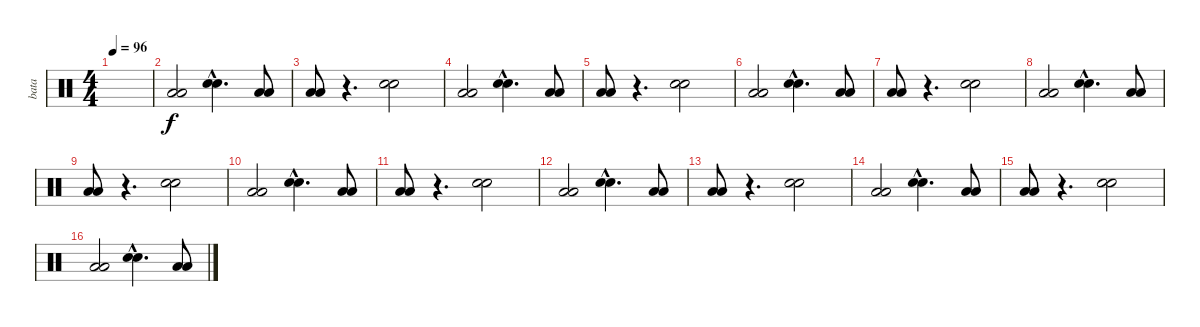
\track ("bata" "bata") {instrument percussion}
\staff {score}
\articulation defaults
\ts (4 4)
\tempo 96
\clef neutral
\ks c
|
("Low Floor Tom (hit)" "Low Floor Tom (hit)").2 ("Electric Snare (hit)"{hac} "Electric Snare (hit)"{hac}).4{d} ("Low Floor Tom (hit)" "Low Floor Tom (hit)").8 |
("Low Floor Tom (hit)" "Low Floor Tom (hit)").8 r.4{d} ("Electric Snare (hit)" "Electric Snare (hit)").2 |
("Low Floor Tom (hit)" "Low Floor Tom (hit)").2 ("Electric Snare (hit)"{hac} "Electric Snare (hit)"{hac}).4{d} ("Low Floor Tom (hit)" "Low Floor Tom (hit)").8 |
("Low Floor Tom (hit)" "Low Floor Tom (hit)").8 r.4{d} ("Electric Snare (hit)" "Electric Snare (hit)").2 |
("Low Floor Tom (hit)" "Low Floor Tom (hit)").2 ("Electric Snare (hit)"{hac} "Electric Snare (hit)"{hac}).4{d} ("Low Floor Tom (hit)" "Low Floor Tom (hit)").8 |
("Low Floor Tom (hit)" "Low Floor Tom (hit)").8 r.4{d} ("Electric Snare (hit)" "Electric Snare (hit)").2 |
("Low Floor Tom (hit)" "Low Floor Tom (hit)").2 ("Electric Snare (hit)"{hac} "Electric Snare (hit)"{hac}).4{d} ("Low Floor Tom (hit)" "Low Floor Tom (hit)").8 |
("Low Floor Tom (hit)" "Low Floor Tom (hit)").8 r.4{d} ("Electric Snare (hit)" "Electric Snare (hit)").2 |
("Low Floor Tom (hit)" "Low Floor Tom (hit)").2 ("Electric Snare (hit)"{hac} "Electric Snare (hit)"{hac}).4{d} ("Low Floor Tom (hit)" "Low Floor Tom (hit)").8 |
("Low Floor Tom (hit)" "Low Floor Tom (hit)").8 r.4{d} ("Electric Snare (hit)" "Electric Snare (hit)").2 |
("Low Floor Tom (hit)" "Low Floor Tom (hit)").2 ("Electric Snare (hit)"{hac} "Electric Snare (hit)"{hac}).4{d} ("Low Floor Tom (hit)" "Low Floor Tom (hit)").8 |
("Low Floor Tom (hit)" "Low Floor Tom (hit)").8 r.4{d} ("Electric Snare (hit)" "Electric Snare (hit)").2 |
("Low Floor Tom (hit)" "Low Floor Tom (hit)").2 ("Electric Snare (hit)"{hac} "Electric Snare (hit)"{hac}).4{d} ("Low Floor Tom (hit)" "Low Floor Tom (hit)").8 |
("Low Floor Tom (hit)" "Low Floor Tom (hit)").8 r.4{d} ("Electric Snare (hit)" "Electric Snare (hit)").2 |
("Low Floor Tom (hit)" "Low Floor Tom (hit)").2 ("Electric Snare (hit)"{hac} "Electric Snare (hit)"{hac}).4{d} ("Low Floor Tom (hit)" "Low Floor Tom (hit)").8
